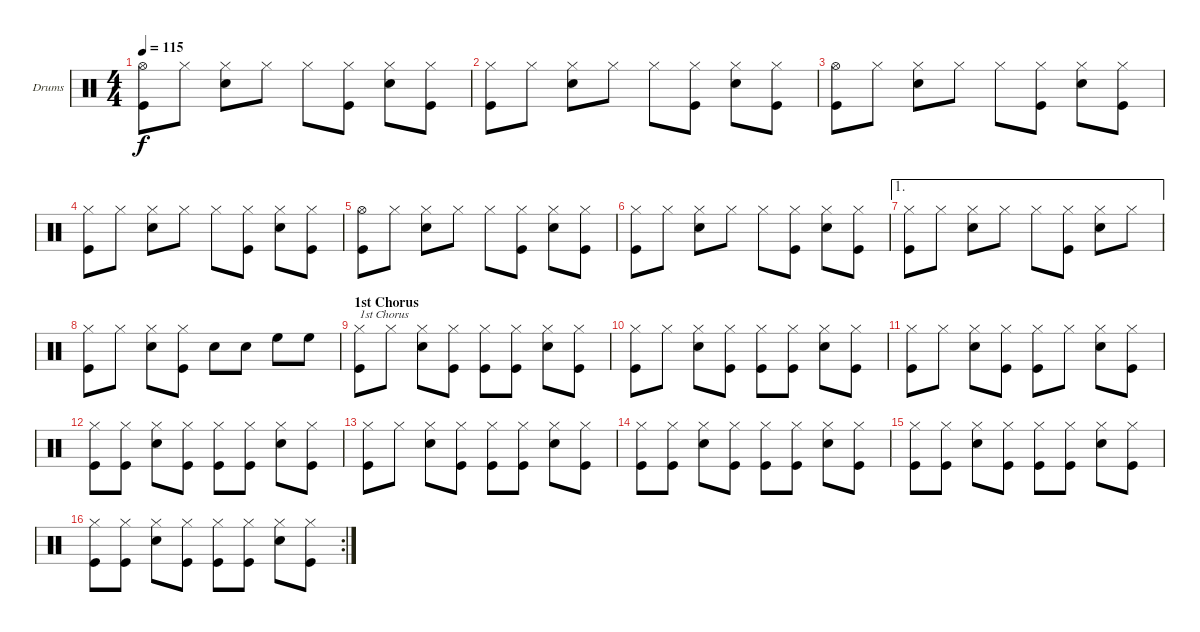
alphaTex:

\bracketExtendMode groupsimilarinstruments
\firstSystemTrackNameOrientation horizontal
\otherSystemsTrackNameOrientation horizontal
\track ("Drumkit" "Drums") {instrument percussion}
\staff {score}
\articulation defaults
\ts (4 4)
\tempo 115
\clef neutral
\ks c
("Hi-Hat (open)" "Kick (hit)").8{dy f} "Hi-Hat (closed)".8 ("Hi-Hat (closed)" "Snare (hit) 2").8 "Hi-Hat (closed)".8 "Hi-Hat (closed)".8 ("Hi-Hat (closed)" "Kick (hit)").8 ("Hi-Hat (closed)" "Snare (hit) 2").8 ("Hi-Hat (closed)" "Kick (hit)").8 |
("Hi-Hat (closed)" "Kick (hit)").8 "Hi-Hat (closed)".8 ("Hi-Hat (closed)" "Snare (hit) 2").8 "Hi-Hat (closed)".8 "Hi-Hat (closed)".8 ("Hi-Hat (closed)" "Kick (hit)").8 ("Hi-Hat (closed)" "Snare (hit) 2").8 ("Hi-Hat (closed)" "Kick (hit)").8 |
("Hi-Hat (open)" "Kick (hit)").8 "Hi-Hat (closed)".8 ("Hi-Hat (closed)" "Snare (hit) 2").8 "Hi-Hat (closed)".8 "Hi-Hat (closed)".8 ("Hi-Hat (closed)" "Kick (hit)").8 ("Hi-Hat (closed)" "Snare (hit) 2").8 ("Hi-Hat (closed)" "Kick (hit)").8 |
("Hi-Hat (closed)" "Kick (hit)").8 "Hi-Hat (closed)".8 ("Hi-Hat (closed)" "Snare (hit) 2").8 "Hi-Hat (closed)".8 "Hi-Hat (closed)".8 ("Hi-Hat (closed)" "Kick (hit)").8 ("Hi-Hat (closed)" "Snare (hit) 2").8 ("Hi-Hat (closed)" "Kick (hit)").8 |
("Hi-Hat (open)" "Kick (hit)").8 "Hi-Hat (closed)".8 ("Hi-Hat (closed)" "Snare (hit) 2").8 "Hi-Hat (closed)".8 "Hi-Hat (closed)".8 ("Hi-Hat (closed)" "Kick (hit)").8 ("Hi-Hat (closed)" "Snare (hit) 2").8 ("Hi-Hat (closed)" "Kick (hit)").8 |
("Hi-Hat (closed)" "Kick (hit)").8 "Hi-Hat (closed)".8 ("Hi-Hat (closed)" "Snare (hit) 2").8 "Hi-Hat (closed)".8 "Hi-Hat (closed)".8 ("Hi-Hat (closed)" "Kick (hit)").8 ("Hi-Hat (closed)" "Snare (hit) 2").8 ("Hi-Hat (closed)" "Kick (hit)").8 |
\ae 1
("Hi-Hat (closed)" "Kick (hit)").8 "Hi-Hat (closed)".8 ("Hi-Hat (closed)" "Snare (hit) 2").8 "Hi-Hat (closed)".8 "Hi-Hat (closed)".8 ("Hi-Hat (closed)" "Kick (hit)").8 ("Hi-Hat (closed)" "Snare (hit) 2").8 "Hi-Hat (closed)".8 |
("Hi-Hat (closed)" "Kick (hit)").8 "Hi-Hat (closed)".8 ("Hi-Hat (closed)" "Snare (hit) 2").8 ("Hi-Hat (closed)" "Kick (hit)").8 "Snare (hit) 2".8 "Snare (hit) 2".8 "High Floor Tom (hit)".8 "High Floor Tom (hit)".8 |
\section ("" "1st Chorus")
("Hi-Hat (closed)" "Kick (hit)").8{txt "1st Chorus"} "Hi-Hat (closed)".8 ("Hi-Hat (closed)" "Snare (hit) 2").8 ("Hi-Hat (closed)" "Kick (hit)").8 ("Hi-Hat (closed)" "Kick (hit)").8 ("Hi-Hat (closed)" "Kick (hit)").8 ("Hi-Hat (closed)" "Snare (hit) 2").8 ("Hi-Hat (closed)" "Kick (hit)").8 |
("Hi-Hat (closed)" "Kick (hit)").8 "Hi-Hat (closed)".8 ("Hi-Hat (closed)" "Snare (hit) 2").8 ("Hi-Hat (closed)" "Kick (hit)").8 ("Hi-Hat (closed)" "Kick (hit)").8 ("Hi-Hat (closed)" "Kick (hit)").8 ("Hi-Hat (closed)" "Snare (hit) 2").8 ("Hi-Hat (closed)" "Kick (hit)").8 |
("Hi-Hat (closed)" "Kick (hit)").8 "Hi-Hat (closed)".8 ("Hi-Hat (closed)" "Snare (hit) 2").8 ("Hi-Hat (closed)" "Kick (hit)").8 ("Hi-Hat (closed)" "Kick (hit)").8 "Hi-Hat (closed)".8 ("Hi-Hat (closed)" "Snare (hit) 2").8 ("Hi-Hat (closed)" "Kick (hit)").8 |
("Hi-Hat (closed)" "Kick (hit)").8 ("Hi-Hat (closed)" "Kick (hit)").8 ("Hi-Hat (closed)" "Snare (hit) 2").8 ("Hi-Hat (closed)" "Kick (hit)").8 ("Hi-Hat (closed)" "Kick (hit)").8 ("Hi-Hat (closed)" "Kick (hit)").8 ("Hi-Hat (closed)" "Snare (hit) 2").8 ("Hi-Hat (closed)" "Kick (hit)").8 |
("Hi-Hat (closed)" "Kick (hit)").8 "Hi-Hat (closed)".8 ("Hi-Hat (closed)" "Snare (hit) 2").8 ("Hi-Hat (closed)" "Kick (hit)").8 ("Hi-Hat (closed)" "Kick (hit)").8 ("Hi-Hat (closed)" "Kick (hit)").8 ("Hi-Hat (closed)" "Snare (hit) 2").8 ("Hi-Hat (closed)" "Kick (hit)").8 |
("Hi-Hat (closed)" "Kick (hit)").8 ("Hi-Hat (closed)" "Kick (hit)").8 ("Hi-Hat (closed)" "Snare (hit) 2").8 ("Hi-Hat (closed)" "Kick (hit)").8 ("Hi-Hat (closed)" "Kick (hit)").8 ("Hi-Hat (closed)" "Kick (hit)").8 ("Hi-Hat (closed)" "Snare (hit) 2").8 ("Hi-Hat (closed)" "Kick (hit)").8 |
("Hi-Hat (closed)" "Kick (hit)").8 ("Hi-Hat (closed)" "Kick (hit)").8 ("Hi-Hat (closed)" "Snare (hit) 2").8 ("Hi-Hat (closed)" "Kick (hit)").8 ("Hi-Hat (closed)" "Kick (hit)").8 ("Hi-Hat (closed)" "Kick (hit)").8 ("Hi-Hat (closed)" "Snare (hit) 2").8 ("Hi-Hat (closed)" "Kick (hit)").8 |
\rc 2
("Hi-Hat (closed)" "Kick (hit)").8 ("Hi-Hat (closed)" "Kick (hit)").8 ("Hi-Hat (closed)" "Snare (hit) 2").8 ("Hi-Hat (closed)" "Kick (hit)").8 ("Hi-Hat (closed)" "Kick (hit)").8 ("Hi-Hat (closed)" "Kick (hit)").8 ("Hi-Hat (closed)" "Snare (hit) 2").8 ("Hi-Hat (closed)" "Kick (hit)").8
